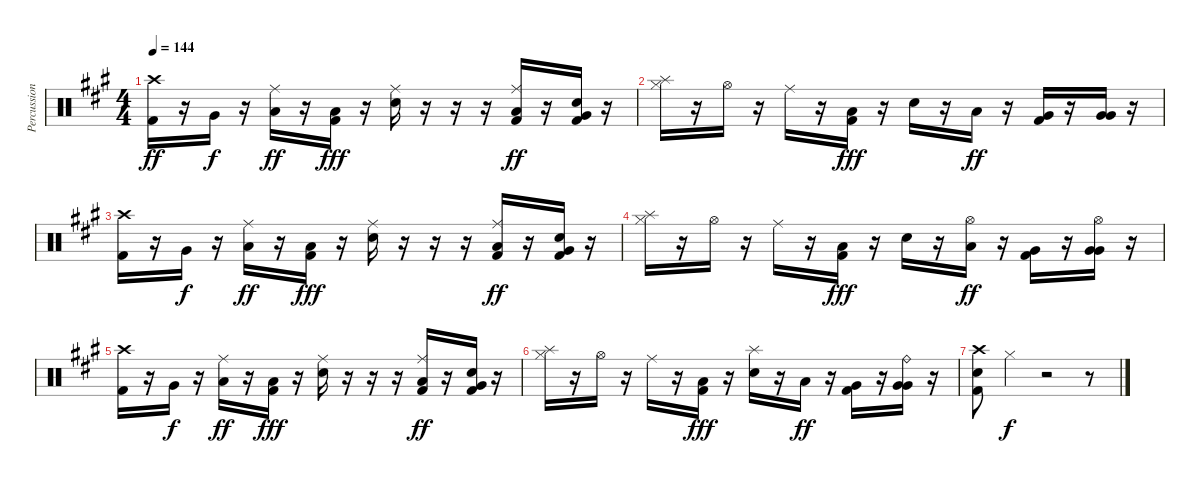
\track ("Percussion" "Percussion") {instrument percussion}
\staff {score}
\articulation defaults
\ts (4 4)
\tempo 144
\clef neutral
\ks f#minor
("Crash high (hit)" "Kick (hit) 2").16{dy ff} r.16 "Very Low Tom (hit)".16{dy f} r.16 ("Ride (middle)" "Low Floor Tom (hit)").16{dy ff} r.16 ("Low Floor Tom (hit)" "Kick (hit) 2").16{dy fff} r.16 ("Ride (middle)" "Snare (hit) 2").16 r.16 r.16 r.16 ("Ride (middle)" "Low Tom (hit)" "Kick (hit) 2").16{dy ff} r.16 ("Snare (hit) 2" "Very Low Tom (hit)" "Kick (hit) 2").16 r.16 |
("Splash (hit)" "Hi-Hat (closed)").16 r.16 "Hi-Hat (open)".16 r.16 "Ride (middle)".16 r.16 ("Low Tom (hit)" "Kick (hit) 2").16{dy fff} r.16 "Snare (hit) 2".16 r.16 "Low Tom (hit)".16{dy ff} r.16 ("Very Low Tom (hit)" "Kick (hit) 2").16 r.16 ("Very Low Tom (hit)" "Very Low Tom (hit)").16 r.16 |
("Crash high (hit)" "Kick (hit) 2").16 r.16 "Very Low Tom (hit)".16{dy f} r.16 ("Ride (middle)" "Low Floor Tom (hit)").16{dy ff} r.16 ("Low Floor Tom (hit)" "Kick (hit) 2").16{dy fff} r.16 ("Ride (middle)" "Snare (hit) 2").16 r.16 r.16 r.16 ("Ride (middle)" "Low Tom (hit)" "Kick (hit) 2").16{dy ff} r.16 ("Snare (hit) 2" "Very Low Tom (hit)" "Kick (hit) 2").16 r.16 |
("Splash (hit)" "Hi-Hat (closed)").16 r.16 "Hi-Hat (open)".16 r.16 "Ride (middle)".16 r.16 ("Low Tom (hit)" "Kick (hit) 2").16{dy fff} r.16 "Snare (hit) 2".16 r.16 ("Hi-Hat (open)" "Low Tom (hit)").16{dy ff} r.16 ("Very Low Tom (hit)" "Kick (hit) 2").16 r.16 ("Hi-Hat (open)" "Very Low Tom (hit)" "Very Low Tom (hit)").16 r.16 |
("Crash high (hit)" "Kick (hit) 2").16 r.16 "Very Low Tom (hit)".16{dy f} r.16 ("Ride (middle)" "Low Floor Tom (hit)").16{dy ff} r.16 ("Low Floor Tom (hit)" "Kick (hit) 2").16{dy fff} r.16 ("Ride (middle)" "Snare (hit) 2").16 r.16 r.16 r.16 ("Ride (middle)" "Low Tom (hit)" "Kick (hit) 2").16{dy ff} r.16 ("Snare (hit) 2" "Very Low Tom (hit)" "Kick (hit) 2").16 r.16 |
("Splash (hit)" "Hi-Hat (closed)").16 r.16 "Hi-Hat (open)".16 r.16 "Ride (middle)".16 r.16 ("Low Tom (hit)" "Kick (hit) 2").16{dy fff} r.16 ("Splash (hit)" "Snare (hit) 2").16 r.16 "Low Tom (hit)".16{dy ff} r.16 ("Very Low Tom (hit)" "Kick (hit) 2").16 r.16 ("Ride (bell)" "Very Low Tom (hit)" "Very Low Tom (hit)").16 r.16 |
("Crash high (hit)" "Snare (hit) 2" "Kick (hit) 2").8 "Hi-Hat (closed)".4{dy f} r.2 r.8
